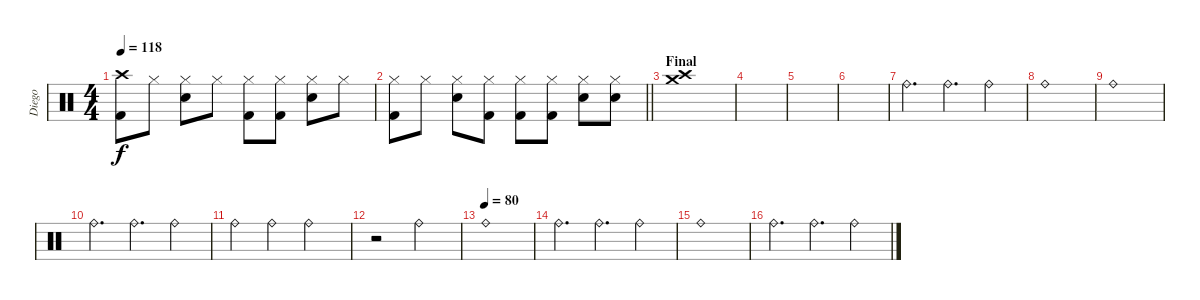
\track ("Diego" "Diego") {instrument percussion}
\staff {score}
\articulation defaults
\ts (4 4)
\tempo 118
\clef neutral
\ks c
("Crash high (hit)" "Kick (hit) 2").8{dy f} "Hi-Hat (closed)".8 ("Hi-Hat (closed)" "Snare (hit) 2").8 "Hi-Hat (closed)".8 ("Hi-Hat (closed)" "Kick (hit) 2").8 ("Hi-Hat (closed)" "Kick (hit) 2").8 ("Hi-Hat (closed)" "Snare (hit) 2").8 "Hi-Hat (closed)".8 |
\barLineRight lightlight
("Hi-Hat (closed)" "Kick (hit) 2").8 "Hi-Hat (closed)".8 ("Hi-Hat (closed)" "Snare (hit) 2").8 ("Hi-Hat (closed)" "Kick (hit) 2").8 ("Hi-Hat (closed)" "Kick (hit) 2").8 ("Hi-Hat (closed)" "Kick (hit) 2").8 ("Hi-Hat (closed)" "Snare (hit) 2").8 ("Hi-Hat (closed)" "Snare (hit) 2").8 |
\section ("" "Final")
("Crash high (hit)" "Crash medium (hit)").1 |
|
|
|
"Ride (bell)".4{d} "Ride (bell)".4{d} "Ride (bell)".4 |
"Ride (bell)".1 |
"Ride (bell)".1 |
"Ride (bell)".4{d} "Ride (bell)".4{d} "Ride (bell)".4 |
"Ride (bell)".4 "Ride (bell)".4 "Ride (bell)".2 |
r.2 "Ride (bell)".2 |
\tempo (80)
"Ride (bell)".1 |
"Ride (bell)".4{d} "Ride (bell)".4{d} "Ride (bell)".4 |
"Ride (bell)".1 |
"Ride (bell)".4{d} "Ride (bell)".4{d} "Ride (bell)".4
